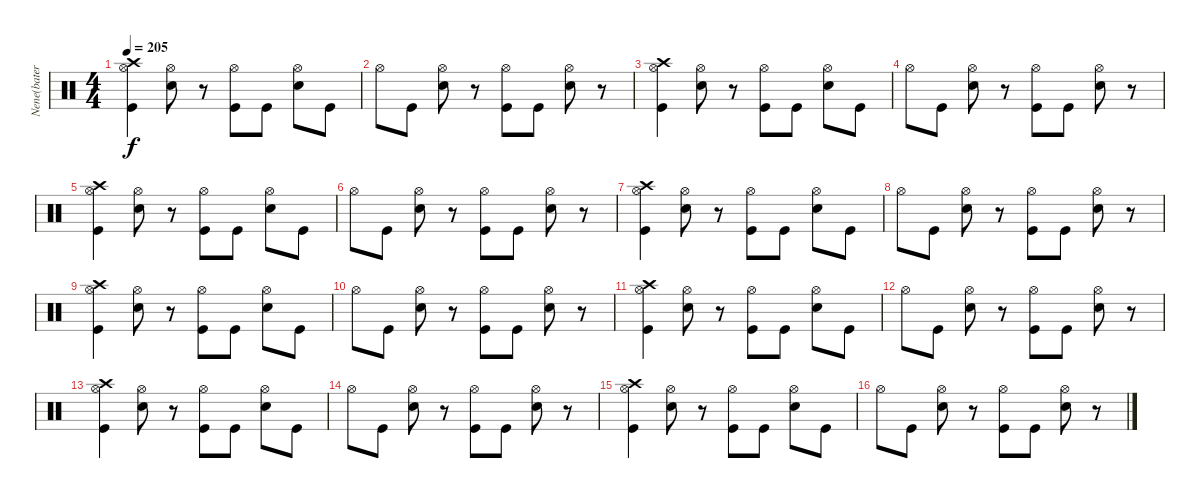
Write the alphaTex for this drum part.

\track ("Nene(batera)" "Nene(bater") {instrument percussion}
\staff {score}
\articulation defaults
\ts (4 4)
\tempo 205
\clef neutral
\ks c
("Crash high (hit)" "Kick (hit)" "Hi-Hat (open)").4{dy f} ("Electric Snare (hit)" "Hi-Hat (open)").8 r.8 ("Kick (hit)" "Hi-Hat (open)").8 "Kick (hit)".8 ("Electric Snare (hit)" "Hi-Hat (open)").8 "Kick (hit)".8 |
"Hi-Hat (open)".8 "Kick (hit)".8 ("Electric Snare (hit)" "Hi-Hat (open)").8 r.8 ("Kick (hit)" "Hi-Hat (open)").8 "Kick (hit)".8 ("Electric Snare (hit)" "Hi-Hat (open)").8 r.8 |
("Crash high (hit)" "Kick (hit)" "Hi-Hat (open)").4 ("Electric Snare (hit)" "Hi-Hat (open)").8 r.8 ("Kick (hit)" "Hi-Hat (open)").8 "Kick (hit)".8 ("Electric Snare (hit)" "Hi-Hat (open)").8 "Kick (hit)".8 |
"Hi-Hat (open)".8 "Kick (hit)".8 ("Electric Snare (hit)" "Hi-Hat (open)").8 r.8 ("Kick (hit)" "Hi-Hat (open)").8 "Kick (hit)".8 ("Electric Snare (hit)" "Hi-Hat (open)").8 r.8 |
("Crash high (hit)" "Kick (hit)" "Hi-Hat (open)").4 ("Electric Snare (hit)" "Hi-Hat (open)").8 r.8 ("Kick (hit)" "Hi-Hat (open)").8 "Kick (hit)".8 ("Electric Snare (hit)" "Hi-Hat (open)").8 "Kick (hit)".8 |
"Hi-Hat (open)".8 "Kick (hit)".8 ("Electric Snare (hit)" "Hi-Hat (open)").8 r.8 ("Kick (hit)" "Hi-Hat (open)").8 "Kick (hit)".8 ("Electric Snare (hit)" "Hi-Hat (open)").8 r.8 |
("Crash high (hit)" "Kick (hit)" "Hi-Hat (open)").4 ("Electric Snare (hit)" "Hi-Hat (open)").8 r.8 ("Kick (hit)" "Hi-Hat (open)").8 "Kick (hit)".8 ("Electric Snare (hit)" "Hi-Hat (open)").8 "Kick (hit)".8 |
"Hi-Hat (open)".8 "Kick (hit)".8 ("Electric Snare (hit)" "Hi-Hat (open)").8 r.8 ("Kick (hit)" "Hi-Hat (open)").8 "Kick (hit)".8 ("Electric Snare (hit)" "Hi-Hat (open)").8 r.8 |
("Crash high (hit)" "Kick (hit)" "Hi-Hat (open)").4 ("Electric Snare (hit)" "Hi-Hat (open)").8 r.8 ("Kick (hit)" "Hi-Hat (open)").8 "Kick (hit)".8 ("Electric Snare (hit)" "Hi-Hat (open)").8 "Kick (hit)".8 |
"Hi-Hat (open)".8 "Kick (hit)".8 ("Electric Snare (hit)" "Hi-Hat (open)").8 r.8 ("Kick (hit)" "Hi-Hat (open)").8 "Kick (hit)".8 ("Electric Snare (hit)" "Hi-Hat (open)").8 r.8 |
("Crash high (hit)" "Kick (hit)" "Hi-Hat (open)").4 ("Electric Snare (hit)" "Hi-Hat (open)").8 r.8 ("Kick (hit)" "Hi-Hat (open)").8 "Kick (hit)".8 ("Electric Snare (hit)" "Hi-Hat (open)").8 "Kick (hit)".8 |
"Hi-Hat (open)".8 "Kick (hit)".8 ("Electric Snare (hit)" "Hi-Hat (open)").8 r.8 ("Kick (hit)" "Hi-Hat (open)").8 "Kick (hit)".8 ("Electric Snare (hit)" "Hi-Hat (open)").8 r.8 |
("Crash high (hit)" "Kick (hit)" "Hi-Hat (open)").4 ("Electric Snare (hit)" "Hi-Hat (open)").8 r.8 ("Kick (hit)" "Hi-Hat (open)").8 "Kick (hit)".8 ("Electric Snare (hit)" "Hi-Hat (open)").8 "Kick (hit)".8 |
"Hi-Hat (open)".8 "Kick (hit)".8 ("Electric Snare (hit)" "Hi-Hat (open)").8 r.8 ("Kick (hit)" "Hi-Hat (open)").8 "Kick (hit)".8 ("Electric Snare (hit)" "Hi-Hat (open)").8 r.8 |
("Crash high (hit)" "Kick (hit)" "Hi-Hat (open)").4 ("Electric Snare (hit)" "Hi-Hat (open)").8 r.8 ("Kick (hit)" "Hi-Hat (open)").8 "Kick (hit)".8 ("Electric Snare (hit)" "Hi-Hat (open)").8 "Kick (hit)".8 |
"Hi-Hat (open)".8 "Kick (hit)".8 ("Electric Snare (hit)" "Hi-Hat (open)").8 r.8 ("Kick (hit)" "Hi-Hat (open)").8 "Kick (hit)".8 ("Electric Snare (hit)" "Hi-Hat (open)").8 r.8
